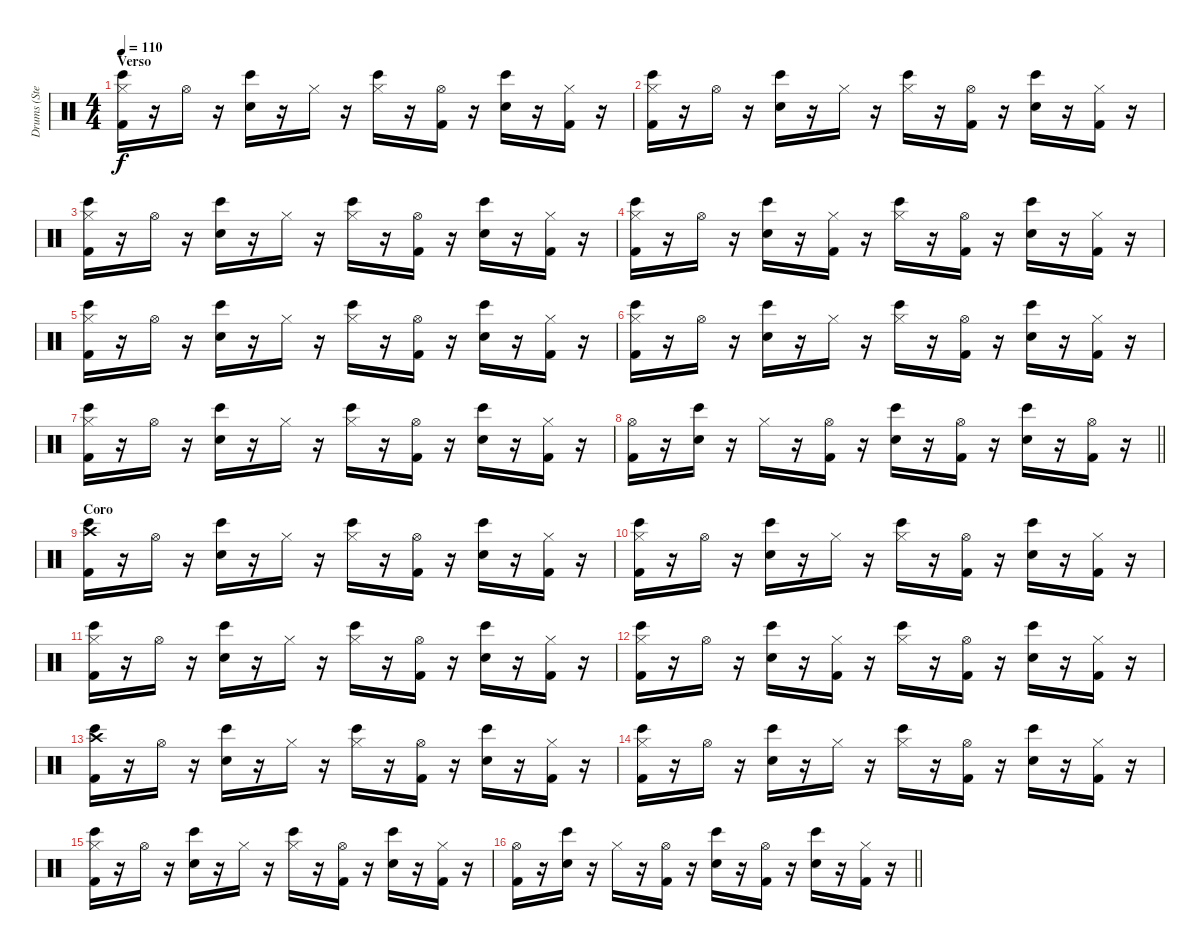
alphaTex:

\track ("Drums (Stephen Perkins)" "Drums (Ste") {instrument percussion}
\staff {score}
\articulation defaults
\ts (4 4)
\section ("" "Verso")
\tempo 110
\clef neutral
\ks c
("Hi-Hat (closed)" "Bongo High (hit)" "Kick (hit) 2").16{dy f} r.16 "Hi-Hat (open)".16 r.16 ("Bongo High (hit)" "Snare (hit) 2").16 r.16 "Hi-Hat (closed)".16 r.16 ("Hi-Hat (closed)" "Bongo High (hit)").16 r.16 ("Hi-Hat (open)" "Kick (hit) 2").16 r.16 ("Bongo High (hit)" "Snare (hit) 2").16 r.16 ("Hi-Hat (closed)" "Kick (hit) 2").16 r.16 |
("Hi-Hat (closed)" "Bongo High (hit)" "Kick (hit) 2").16 r.16 "Hi-Hat (open)".16 r.16 ("Bongo High (hit)" "Snare (hit) 2").16 r.16 "Hi-Hat (closed)".16 r.16 ("Hi-Hat (closed)" "Bongo High (hit)").16 r.16 ("Hi-Hat (open)" "Kick (hit) 2").16 r.16 ("Bongo High (hit)" "Snare (hit) 2").16 r.16 ("Hi-Hat (closed)" "Kick (hit) 2").16 r.16 |
("Hi-Hat (closed)" "Bongo High (hit)" "Kick (hit) 2").16 r.16 "Hi-Hat (open)".16 r.16 ("Bongo High (hit)" "Snare (hit) 2").16 r.16 "Hi-Hat (closed)".16 r.16 ("Hi-Hat (closed)" "Bongo High (hit)").16 r.16 ("Hi-Hat (open)" "Kick (hit) 2").16 r.16 ("Bongo High (hit)" "Snare (hit) 2").16 r.16 ("Hi-Hat (closed)" "Kick (hit) 2").16 r.16 |
("Hi-Hat (closed)" "Bongo High (hit)" "Kick (hit) 2").16 r.16 "Hi-Hat (open)".16 r.16 ("Bongo High (hit)" "Snare (hit) 2").16 r.16 ("Hi-Hat (closed)" "Kick (hit) 2").16 r.16 ("Hi-Hat (closed)" "Bongo High (hit)").16 r.16 ("Hi-Hat (open)" "Kick (hit) 2").16 r.16 ("Bongo High (hit)" "Snare (hit) 2").16 r.16 ("Hi-Hat (closed)" "Kick (hit) 2").16 r.16 |
("Hi-Hat (closed)" "Bongo High (hit)" "Kick (hit) 2").16 r.16 "Hi-Hat (open)".16 r.16 ("Bongo High (hit)" "Snare (hit) 2").16 r.16 "Hi-Hat (closed)".16 r.16 ("Hi-Hat (closed)" "Bongo High (hit)").16 r.16 ("Hi-Hat (open)" "Kick (hit) 2").16 r.16 ("Bongo High (hit)" "Snare (hit) 2").16 r.16 ("Hi-Hat (closed)" "Kick (hit) 2").16 r.16 |
("Hi-Hat (closed)" "Bongo High (hit)" "Kick (hit) 2").16 r.16 "Hi-Hat (open)".16 r.16 ("Bongo High (hit)" "Snare (hit) 2").16 r.16 "Hi-Hat (closed)".16 r.16 ("Hi-Hat (closed)" "Bongo High (hit)").16 r.16 ("Hi-Hat (open)" "Kick (hit) 2").16 r.16 ("Bongo High (hit)" "Snare (hit) 2").16 r.16 ("Hi-Hat (closed)" "Kick (hit) 2").16 r.16 |
("Hi-Hat (closed)" "Bongo High (hit)" "Kick (hit) 2").16 r.16 "Hi-Hat (open)".16 r.16 ("Bongo High (hit)" "Snare (hit) 2").16 r.16 "Hi-Hat (closed)".16 r.16 ("Hi-Hat (closed)" "Bongo High (hit)").16 r.16 ("Hi-Hat (open)" "Kick (hit) 2").16 r.16 ("Bongo High (hit)" "Snare (hit) 2").16 r.16 ("Hi-Hat (closed)" "Kick (hit) 2").16 r.16 |
\barLineRight lightlight
("Hi-Hat (open)" "Kick (hit) 2").16 r.16 ("Bongo High (hit)" "Snare (hit) 2").16 r.16 "Hi-Hat (closed)".16 r.16 ("Hi-Hat (open)" "Kick (hit) 2").16 r.16 ("Bongo High (hit)" "Snare (hit) 2").16 r.16 ("Hi-Hat (open)" "Kick (hit) 2").16 r.16 ("Bongo High (hit)" "Snare (hit) 2").16 r.16 ("Hi-Hat (open)" "Kick (hit) 2").16 r.16 |
\section ("" "Coro")
("Crash high (hit)" "Bongo High (hit)" "Kick (hit) 2").16 r.16 "Hi-Hat (open)".16 r.16 ("Bongo High (hit)" "Snare (hit) 2").16 r.16 "Hi-Hat (closed)".16 r.16 ("Hi-Hat (closed)" "Bongo High (hit)").16 r.16 ("Hi-Hat (open)" "Kick (hit) 2").16 r.16 ("Bongo High (hit)" "Snare (hit) 2").16 r.16 ("Hi-Hat (closed)" "Kick (hit) 2").16 r.16 |
("Hi-Hat (closed)" "Bongo High (hit)" "Kick (hit) 2").16 r.16 "Hi-Hat (open)".16 r.16 ("Bongo High (hit)" "Snare (hit) 2").16 r.16 "Hi-Hat (closed)".16 r.16 ("Hi-Hat (closed)" "Bongo High (hit)").16 r.16 ("Hi-Hat (open)" "Kick (hit) 2").16 r.16 ("Bongo High (hit)" "Snare (hit) 2").16 r.16 ("Hi-Hat (closed)" "Kick (hit) 2").16 r.16 |
("Hi-Hat (closed)" "Bongo High (hit)" "Kick (hit) 2").16 r.16 "Hi-Hat (open)".16 r.16 ("Bongo High (hit)" "Snare (hit) 2").16 r.16 "Hi-Hat (closed)".16 r.16 ("Hi-Hat (closed)" "Bongo High (hit)").16 r.16 ("Hi-Hat (open)" "Kick (hit) 2").16 r.16 ("Bongo High (hit)" "Snare (hit) 2").16 r.16 ("Hi-Hat (closed)" "Kick (hit) 2").16 r.16 |
("Hi-Hat (closed)" "Bongo High (hit)" "Kick (hit) 2").16 r.16 "Hi-Hat (open)".16 r.16 ("Bongo High (hit)" "Snare (hit) 2").16 r.16 ("Hi-Hat (closed)" "Kick (hit) 2").16 r.16 ("Hi-Hat (closed)" "Bongo High (hit)").16 r.16 ("Hi-Hat (open)" "Kick (hit) 2").16 r.16 ("Bongo High (hit)" "Snare (hit) 2").16 r.16 ("Hi-Hat (closed)" "Kick (hit) 2").16 r.16 |
("Crash high (hit)" "Bongo High (hit)" "Kick (hit) 2").16 r.16 "Hi-Hat (open)".16 r.16 ("Bongo High (hit)" "Snare (hit) 2").16 r.16 "Hi-Hat (closed)".16 r.16 ("Hi-Hat (closed)" "Bongo High (hit)").16 r.16 ("Hi-Hat (open)" "Kick (hit) 2").16 r.16 ("Bongo High (hit)" "Snare (hit) 2").16 r.16 ("Hi-Hat (closed)" "Kick (hit) 2").16 r.16 |
("Hi-Hat (closed)" "Bongo High (hit)" "Kick (hit) 2").16 r.16 "Hi-Hat (open)".16 r.16 ("Bongo High (hit)" "Snare (hit) 2").16 r.16 "Hi-Hat (closed)".16 r.16 ("Hi-Hat (closed)" "Bongo High (hit)").16 r.16 ("Hi-Hat (open)" "Kick (hit) 2").16 r.16 ("Bongo High (hit)" "Snare (hit) 2").16 r.16 ("Hi-Hat (closed)" "Kick (hit) 2").16 r.16 |
("Hi-Hat (closed)" "Bongo High (hit)" "Kick (hit) 2").16 r.16 "Hi-Hat (open)".16 r.16 ("Bongo High (hit)" "Snare (hit) 2").16 r.16 "Hi-Hat (closed)".16 r.16 ("Hi-Hat (closed)" "Bongo High (hit)").16 r.16 ("Hi-Hat (open)" "Kick (hit) 2").16 r.16 ("Bongo High (hit)" "Snare (hit) 2").16 r.16 ("Hi-Hat (closed)" "Kick (hit) 2").16 r.16 |
\barLineRight lightlight
("Hi-Hat (open)" "Kick (hit) 2").16 r.16 ("Bongo High (hit)" "Snare (hit) 2").16 r.16 "Hi-Hat (closed)".16 r.16 ("Hi-Hat (open)" "Kick (hit) 2").16 r.16 ("Bongo High (hit)" "Snare (hit) 2").16 r.16 ("Hi-Hat (open)" "Kick (hit) 2").16 r.16 ("Bongo High (hit)" "Snare (hit) 2").16 r.16 ("Hi-Hat (closed)" "Kick (hit) 2").16 r.16
